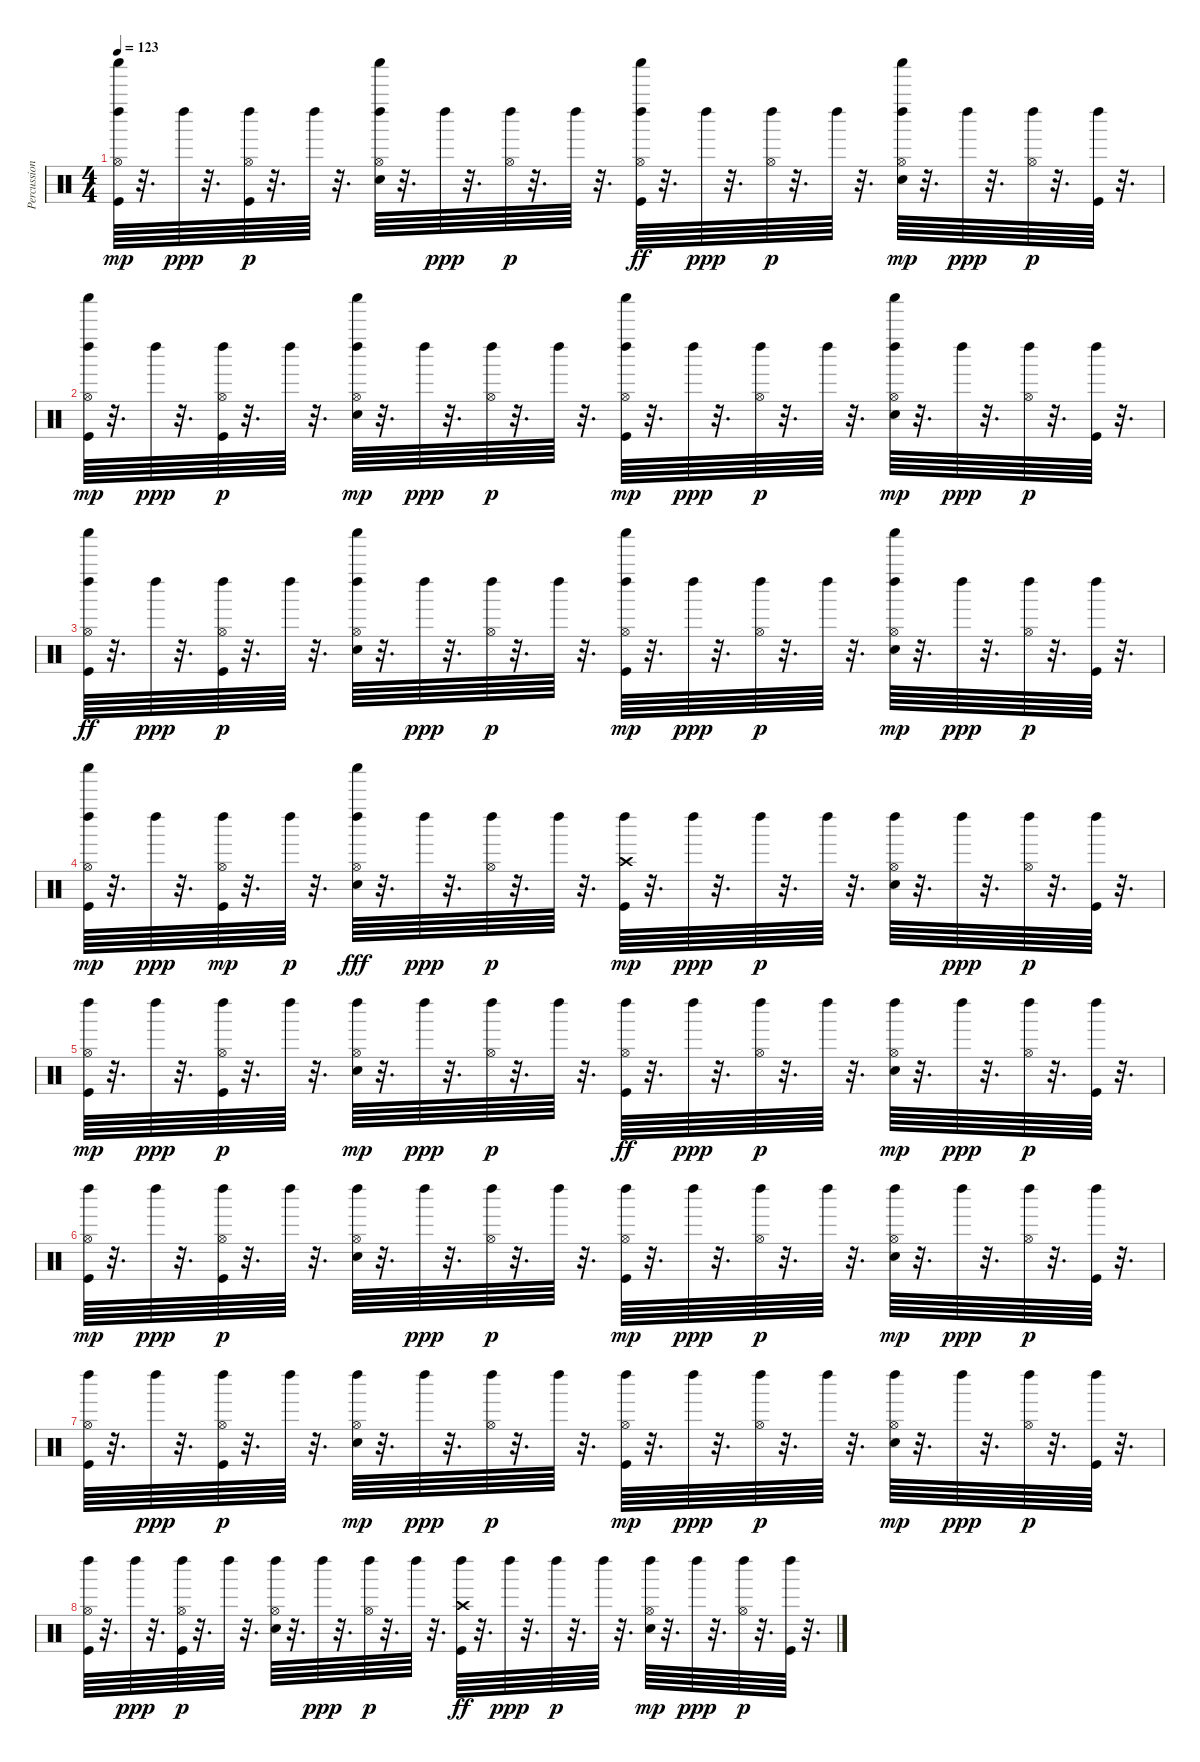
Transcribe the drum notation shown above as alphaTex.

\track ("Percussion" "Percussion") {instrument percussion}
\staff {score}
\articulation defaults
\ts (4 4)
\tempo 123
\clef neutral
\ks c
("Hi-Hat (open)" "Kick (hit)" "Shaker (hit)" "Left Maraca (hit)").64{dy mp} r.32{d} "Left Maraca (hit)".64{dy ppp} r.32{d} ("Kick (hit)" "Hi-Hat (open)" "Left Maraca (hit)").64{dy p} r.32{d} "Left Maraca (hit)".64 r.32{d} ("Shaker (hit)" "Electric Snare (hit)" "Left Maraca (hit)" "Hi-Hat (open)").64 r.32{d} "Left Maraca (hit)".64{dy ppp} r.32{d} ("Hi-Hat (open)" "Left Maraca (hit)").64{dy p} r.32{d} "Left Maraca (hit)".64 r.32{d} ("Shaker (hit)" "Left Maraca (hit)" "Hi-Hat (open)" "Kick (hit)").64{dy ff} r.32{d} "Left Maraca (hit)".64{dy ppp} r.32{d} ("Hi-Hat (open)" "Left Maraca (hit)").64{dy p} r.32{d} "Left Maraca (hit)".64 r.32{d} ("Electric Snare (hit)" "Hi-Hat (open)" "Left Maraca (hit)" "Shaker (hit)").64{dy mp} r.32{d} "Left Maraca (hit)".64{dy ppp} r.32{d} ("Hi-Hat (open)" "Left Maraca (hit)").64{dy p} r.32{d} ("Kick (hit)" "Left Maraca (hit)").64 r.32{d} |
("Kick (hit)" "Hi-Hat (open)" "Left Maraca (hit)" "Shaker (hit)").64{dy mp} r.32{d} "Left Maraca (hit)".64{dy ppp} r.32{d} ("Kick (hit)" "Hi-Hat (open)" "Left Maraca (hit)").64{dy p} r.32{d} "Left Maraca (hit)".64 r.32{d} ("Electric Snare (hit)" "Hi-Hat (open)" "Left Maraca (hit)" "Shaker (hit)").64{dy mp} r.32{d} "Left Maraca (hit)".64{dy ppp} r.32{d} ("Hi-Hat (open)" "Left Maraca (hit)").64{dy p} r.32{d} "Left Maraca (hit)".64 r.32{d} ("Kick (hit)" "Hi-Hat (open)" "Left Maraca (hit)" "Shaker (hit)").64{dy mp} r.32{d} "Left Maraca (hit)".64{dy ppp} r.32{d} ("Hi-Hat (open)" "Left Maraca (hit)").64{dy p} r.32{d} "Left Maraca (hit)".64 r.32{d} ("Electric Snare (hit)" "Hi-Hat (open)" "Left Maraca (hit)" "Shaker (hit)").64{dy mp} r.32{d} "Left Maraca (hit)".64{dy ppp} r.32{d} ("Hi-Hat (open)" "Left Maraca (hit)").64{dy p} r.32{d} ("Kick (hit)" "Left Maraca (hit)").64 r.32{d} |
("Shaker (hit)" "Left Maraca (hit)" "Hi-Hat (open)" "Kick (hit)").64{dy ff} r.32{d} "Left Maraca (hit)".64{dy ppp} r.32{d} ("Kick (hit)" "Hi-Hat (open)" "Left Maraca (hit)").64{dy p} r.32{d} "Left Maraca (hit)".64 r.32{d} ("Left Maraca (hit)" "Shaker (hit)" "Electric Snare (hit)" "Hi-Hat (open)").64 r.32{d} "Left Maraca (hit)".64{dy ppp} r.32{d} ("Hi-Hat (open)" "Left Maraca (hit)").64{dy p} r.32{d} "Left Maraca (hit)".64 r.32{d} ("Kick (hit)" "Hi-Hat (open)" "Left Maraca (hit)" "Shaker (hit)").64{dy mp} r.32{d} "Left Maraca (hit)".64{dy ppp} r.32{d} ("Hi-Hat (open)" "Left Maraca (hit)").64{dy p} r.32{d} "Left Maraca (hit)".64 r.32{d} ("Electric Snare (hit)" "Hi-Hat (open)" "Left Maraca (hit)" "Shaker (hit)").64{dy mp} r.32{d} "Left Maraca (hit)".64{dy ppp} r.32{d} ("Hi-Hat (open)" "Left Maraca (hit)").64{dy p} r.32{d} ("Kick (hit)" "Left Maraca (hit)").64 r.32{d} |
("Kick (hit)" "Hi-Hat (open)" "Left Maraca (hit)" "Shaker (hit)").64{dy mp} r.32{d} "Left Maraca (hit)".64{dy ppp} r.32{d} ("Hi-Hat (open)" "Left Maraca (hit)" "Kick (hit)").64{dy mp} r.32{d} "Left Maraca (hit)".64{dy p} r.32{d} ("Shaker (hit)" "Left Maraca (hit)" "Hi-Hat (open)" "Electric Snare (hit)").64{dy fff} r.32{d} "Left Maraca (hit)".64{dy ppp} r.32{d} ("Hi-Hat (open)" "Left Maraca (hit)").64{dy p} r.32{d} "Left Maraca (hit)".64 r.32{d} ("Kick (hit)" "Crash high (hit)" "Left Maraca (hit)").64{dy mp} r.32{d} "Left Maraca (hit)".64{dy ppp} r.32{d} "Left Maraca (hit)".64{dy p} r.32{d} "Left Maraca (hit)".64 r.32{d} ("Left Maraca (hit)" "Electric Snare (hit)" "Hi-Hat (open)").64 r.32{d} "Left Maraca (hit)".64{dy ppp} r.32{d} ("Hi-Hat (open)" "Left Maraca (hit)").64{dy p} r.32{d} ("Kick (hit)" "Left Maraca (hit)").64 r.32{d} |
("Kick (hit)" "Hi-Hat (open)" "Left Maraca (hit)").64{dy mp} r.32{d} "Left Maraca (hit)".64{dy ppp} r.32{d} ("Left Maraca (hit)" "Kick (hit)" "Hi-Hat (open)").64{dy p} r.32{d} "Left Maraca (hit)".64 r.32{d} ("Electric Snare (hit)" "Hi-Hat (open)" "Left Maraca (hit)").64{dy mp} r.32{d} "Left Maraca (hit)".64{dy ppp} r.32{d} ("Hi-Hat (open)" "Left Maraca (hit)").64{dy p} r.32{d} "Left Maraca (hit)".64 r.32{d} ("Hi-Hat (open)" "Left Maraca (hit)" "Kick (hit)").64{dy ff} r.32{d} "Left Maraca (hit)".64{dy ppp} r.32{d} ("Hi-Hat (open)" "Left Maraca (hit)").64{dy p} r.32{d} "Left Maraca (hit)".64 r.32{d} ("Electric Snare (hit)" "Hi-Hat (open)" "Left Maraca (hit)").64{dy mp} r.32{d} "Left Maraca (hit)".64{dy ppp} r.32{d} ("Hi-Hat (open)" "Left Maraca (hit)").64{dy p} r.32{d} ("Kick (hit)" "Left Maraca (hit)").64 r.32{d} |
("Kick (hit)" "Hi-Hat (open)" "Left Maraca (hit)").64{dy mp} r.32{d} "Left Maraca (hit)".64{dy ppp} r.32{d} ("Kick (hit)" "Hi-Hat (open)" "Left Maraca (hit)").64{dy p} r.32{d} "Left Maraca (hit)".64 r.32{d} ("Left Maraca (hit)" "Electric Snare (hit)" "Hi-Hat (open)").64 r.32{d} "Left Maraca (hit)".64{dy ppp} r.32{d} ("Hi-Hat (open)" "Left Maraca (hit)").64{dy p} r.32{d} "Left Maraca (hit)".64 r.32{d} ("Kick (hit)" "Hi-Hat (open)" "Left Maraca (hit)").64{dy mp} r.32{d} "Left Maraca (hit)".64{dy ppp} r.32{d} ("Hi-Hat (open)" "Left Maraca (hit)").64{dy p} r.32{d} "Left Maraca (hit)".64 r.32{d} ("Electric Snare (hit)" "Hi-Hat (open)" "Left Maraca (hit)").64{dy mp} r.32{d} "Left Maraca (hit)".64{dy ppp} r.32{d} ("Hi-Hat (open)" "Left Maraca (hit)").64{dy p} r.32{d} ("Kick (hit)" "Left Maraca (hit)").64 r.32{d} |
("Left Maraca (hit)" "Kick (hit)" "Hi-Hat (open)").64 r.32{d} "Left Maraca (hit)".64{dy ppp} r.32{d} ("Kick (hit)" "Hi-Hat (open)" "Left Maraca (hit)").64{dy p} r.32{d} "Left Maraca (hit)".64 r.32{d} ("Electric Snare (hit)" "Hi-Hat (open)" "Left Maraca (hit)").64{dy mp} r.32{d} "Left Maraca (hit)".64{dy ppp} r.32{d} ("Hi-Hat (open)" "Left Maraca (hit)").64{dy p} r.32{d} "Left Maraca (hit)".64 r.32{d} ("Kick (hit)" "Hi-Hat (open)" "Left Maraca (hit)").64{dy mp} r.32{d} "Left Maraca (hit)".64{dy ppp} r.32{d} ("Hi-Hat (open)" "Left Maraca (hit)").64{dy p} r.32{d} "Left Maraca (hit)".64 r.32{d} ("Electric Snare (hit)" "Hi-Hat (open)" "Left Maraca (hit)").64{dy mp} r.32{d} "Left Maraca (hit)".64{dy ppp} r.32{d} ("Hi-Hat (open)" "Left Maraca (hit)").64{dy p} r.32{d} ("Kick (hit)" "Left Maraca (hit)").64 r.32{d} |
("Left Maraca (hit)" "Kick (hit)" "Hi-Hat (open)").64 r.32{d} "Left Maraca (hit)".64{dy ppp} r.32{d} ("Kick (hit)" "Hi-Hat (open)" "Left Maraca (hit)").64{dy p} r.32{d} "Left Maraca (hit)".64 r.32{d} ("Left Maraca (hit)" "Electric Snare (hit)" "Hi-Hat (open)").64 r.32{d} "Left Maraca (hit)".64{dy ppp} r.32{d} ("Hi-Hat (open)" "Left Maraca (hit)").64{dy p} r.32{d} "Left Maraca (hit)".64 r.32{d} ("Crash high (hit)" "Left Maraca (hit)" "Kick (hit)").64{dy ff} r.32{d} "Left Maraca (hit)".64{dy ppp} r.32{d} "Left Maraca (hit)".64{dy p} r.32{d} "Left Maraca (hit)".64 r.32{d} ("Electric Snare (hit)" "Hi-Hat (open)" "Left Maraca (hit)").64{dy mp} r.32{d} "Left Maraca (hit)".64{dy ppp} r.32{d} ("Hi-Hat (open)" "Left Maraca (hit)").64{dy p} r.32{d} ("Kick (hit)" "Left Maraca (hit)").64 r.32{d}
